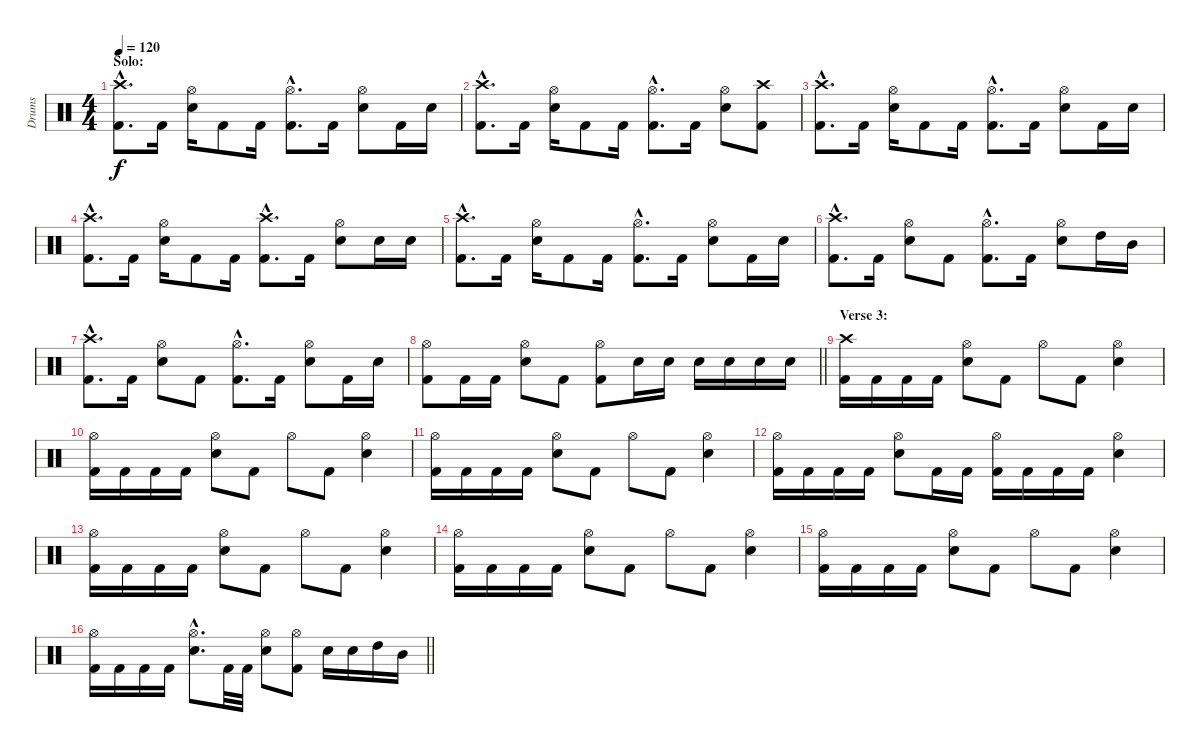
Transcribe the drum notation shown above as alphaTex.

\track ("Drums" "Drums") {instrument percussion}
\staff {score}
\articulation defaults
\ts (4 4)
\section ("" "Solo:")
\tempo 120
\clef neutral
\ks c
("Crash high (hit)"{hac} "Kick (hit) 2"{hac}).8{d dy f} "Kick (hit) 2".16 ("Hi-Hat (open)" "Electric Snare (hit)").16 "Kick (hit) 2".8 "Kick (hit) 2".16 ("Hi-Hat (open)"{hac} "Kick (hit) 2"{hac}).8{d} "Kick (hit) 2".16 ("Hi-Hat (open)" "Electric Snare (hit)").8 "Kick (hit) 2".16 "Electric Snare (hit)".16 |
("Crash high (hit)"{hac} "Kick (hit) 2"{hac}).8{d} "Kick (hit) 2".16 ("Hi-Hat (open)" "Electric Snare (hit)").16 "Kick (hit) 2".8 "Kick (hit) 2".16 ("Hi-Hat (open)"{hac} "Kick (hit) 2"{hac}).8{d} "Kick (hit) 2".16 ("Hi-Hat (open)" "Electric Snare (hit)").8 ("Crash high (hit)" "Kick (hit) 2").8 |
("Crash high (hit)"{hac} "Kick (hit) 2"{hac}).8{d} "Kick (hit) 2".16 ("Hi-Hat (open)" "Electric Snare (hit)").16 "Kick (hit) 2".8 "Kick (hit) 2".16 ("Hi-Hat (open)"{hac} "Kick (hit) 2"{hac}).8{d} "Kick (hit) 2".16 ("Hi-Hat (open)" "Electric Snare (hit)").8 "Kick (hit) 2".16 "Electric Snare (hit)".16 |
("Crash high (hit)"{hac} "Kick (hit) 2"{hac}).8{d} "Kick (hit) 2".16 ("Hi-Hat (open)" "Electric Snare (hit)").16 "Kick (hit) 2".8 "Kick (hit) 2".16 ("Crash high (hit)"{hac} "Kick (hit) 2"{hac}).8{d} "Kick (hit) 2".16 ("Hi-Hat (open)" "Electric Snare (hit)").8 "Electric Snare (hit)".16 "Electric Snare (hit)".16 |
("Crash high (hit)"{hac} "Kick (hit) 2"{hac}).8{d} "Kick (hit) 2".16 ("Hi-Hat (open)" "Electric Snare (hit)").16 "Kick (hit) 2".8 "Kick (hit) 2".16 ("Hi-Hat (open)"{hac} "Kick (hit) 2"{hac}).8{d} "Kick (hit) 2".16 ("Hi-Hat (open)" "Electric Snare (hit)").8 "Kick (hit) 2".16 "Electric Snare (hit)".16 |
("Crash high (hit)"{hac} "Kick (hit) 2"{hac}).8{d} "Kick (hit) 2".16 ("Hi-Hat (open)" "Electric Snare (hit)").8 "Kick (hit) 2".8 ("Hi-Hat (open)"{hac} "Kick (hit) 2"{hac}).8{d} "Kick (hit) 2".16 ("Hi-Hat (open)" "Electric Snare (hit)").8 "High Tom (hit)".16 "Mid Tom (hit)".16 |
("Crash high (hit)"{hac} "Kick (hit) 2"{hac}).8{d} "Kick (hit) 2".16 ("Hi-Hat (open)" "Electric Snare (hit)").8 "Kick (hit) 2".8 ("Hi-Hat (open)"{hac} "Kick (hit) 2"{hac}).8{d} "Kick (hit) 2".16 ("Hi-Hat (open)" "Electric Snare (hit)").8 "Kick (hit) 2".16 "Electric Snare (hit)".16 |
\barLineRight lightlight
("Hi-Hat (open)" "Kick (hit) 2").8 "Kick (hit) 2".16 "Kick (hit) 2".16 ("Hi-Hat (open)" "Electric Snare (hit)").8 "Kick (hit) 2".8 ("Hi-Hat (open)" "Kick (hit) 2").8 "Electric Snare (hit)".16 "Electric Snare (hit)".16 "Electric Snare (hit)".16 "Electric Snare (hit)".16 "Electric Snare (hit)".16 "Electric Snare (hit)".16 |
\section ("" "Verse 3:")
("Crash high (hit)" "Kick (hit) 2").16 "Kick (hit) 2".16 "Kick (hit) 2".16 "Kick (hit) 2".16 ("Hi-Hat (open)" "Electric Snare (hit)").8 "Kick (hit) 2".8 "Hi-Hat (open)".8 "Kick (hit) 2".8 ("Hi-Hat (open)" "Electric Snare (hit)").4 |
("Hi-Hat (open)" "Kick (hit) 2").16 "Kick (hit) 2".16 "Kick (hit) 2".16 "Kick (hit) 2".16 ("Hi-Hat (open)" "Electric Snare (hit)").8 "Kick (hit) 2".8 "Hi-Hat (open)".8 "Kick (hit) 2".8 ("Hi-Hat (open)" "Electric Snare (hit)").4 |
("Hi-Hat (open)" "Kick (hit) 2").16 "Kick (hit) 2".16 "Kick (hit) 2".16 "Kick (hit) 2".16 ("Hi-Hat (open)" "Electric Snare (hit)").8 "Kick (hit) 2".8 "Hi-Hat (open)".8 "Kick (hit) 2".8 ("Hi-Hat (open)" "Electric Snare (hit)").4 |
("Hi-Hat (open)" "Kick (hit) 2").16 "Kick (hit) 2".16 "Kick (hit) 2".16 "Kick (hit) 2".16 ("Hi-Hat (open)" "Electric Snare (hit)").8 "Kick (hit) 2".16 "Kick (hit) 2".16 ("Hi-Hat (open)" "Kick (hit) 2").16 "Kick (hit) 2".16 "Kick (hit) 2".16 "Kick (hit) 2".16 ("Hi-Hat (open)" "Electric Snare (hit)").4 |
("Hi-Hat (open)" "Kick (hit) 2").16 "Kick (hit) 2".16 "Kick (hit) 2".16 "Kick (hit) 2".16 ("Hi-Hat (open)" "Electric Snare (hit)").8 "Kick (hit) 2".8 "Hi-Hat (open)".8 "Kick (hit) 2".8 ("Hi-Hat (open)" "Electric Snare (hit)").4 |
("Hi-Hat (open)" "Kick (hit) 2").16 "Kick (hit) 2".16 "Kick (hit) 2".16 "Kick (hit) 2".16 ("Hi-Hat (open)" "Electric Snare (hit)").8 "Kick (hit) 2".8 "Hi-Hat (open)".8 "Kick (hit) 2".8 ("Hi-Hat (open)" "Electric Snare (hit)").4 |
("Hi-Hat (open)" "Kick (hit) 2").16 "Kick (hit) 2".16 "Kick (hit) 2".16 "Kick (hit) 2".16 ("Hi-Hat (open)" "Electric Snare (hit)").8 "Kick (hit) 2".8 "Hi-Hat (open)".8 "Kick (hit) 2".8 ("Hi-Hat (open)" "Electric Snare (hit)").4 |
\barLineRight lightlight
("Hi-Hat (open)" "Kick (hit) 2").16 "Kick (hit) 2".16 "Kick (hit) 2".16 "Kick (hit) 2".16 ("Hi-Hat (open)"{hac} "Electric Snare (hit)"{hac}).8{d} "Kick (hit) 2".32 "Kick (hit) 2".32 ("Hi-Hat (open)" "Electric Snare (hit)").8 ("Hi-Hat (open)" "Kick (hit) 2").8 "Electric Snare (hit)".16 "Electric Snare (hit)".16 "High Tom (hit)".16 "Mid Tom (hit)".16
